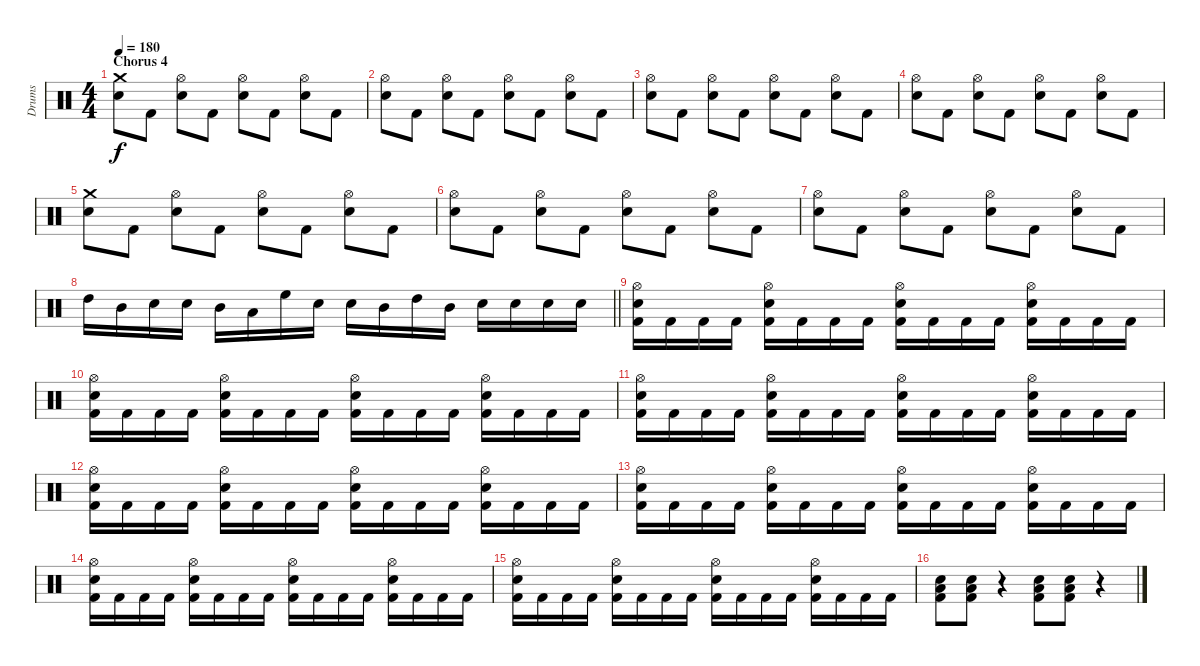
\track ("Drums" "Drums") {instrument percussion}
\staff {score}
\articulation defaults
\ts (4 4)
\section ("" "Chorus 4")
\tempo 180
\clef neutral
\ks c
("Crash medium (hit)" "Electric Snare (hit)").8{dy f} "Kick (hit) 2".8 ("Hi-Hat (open)" "Electric Snare (hit)").8 "Kick (hit) 2".8 ("Hi-Hat (open)" "Electric Snare (hit)").8 "Kick (hit) 2".8 ("Hi-Hat (open)" "Electric Snare (hit)").8 "Kick (hit) 2".8 |
("Hi-Hat (open)" "Electric Snare (hit)").8 "Kick (hit) 2".8 ("Hi-Hat (open)" "Electric Snare (hit)").8 "Kick (hit) 2".8 ("Hi-Hat (open)" "Electric Snare (hit)").8 "Kick (hit) 2".8 ("Hi-Hat (open)" "Electric Snare (hit)").8 "Kick (hit) 2".8 |
("Hi-Hat (open)" "Electric Snare (hit)").8 "Kick (hit) 2".8 ("Hi-Hat (open)" "Electric Snare (hit)").8 "Kick (hit) 2".8 ("Hi-Hat (open)" "Electric Snare (hit)").8 "Kick (hit) 2".8 ("Hi-Hat (open)" "Electric Snare (hit)").8 "Kick (hit) 2".8 |
("Hi-Hat (open)" "Electric Snare (hit)").8 "Kick (hit) 2".8 ("Hi-Hat (open)" "Electric Snare (hit)").8 "Kick (hit) 2".8 ("Hi-Hat (open)" "Electric Snare (hit)").8 "Kick (hit) 2".8 ("Hi-Hat (open)" "Electric Snare (hit)").8 "Kick (hit) 2".8 |
("Crash medium (hit)" "Electric Snare (hit)").8 "Kick (hit) 2".8 ("Hi-Hat (open)" "Electric Snare (hit)").8 "Kick (hit) 2".8 ("Hi-Hat (open)" "Electric Snare (hit)").8 "Kick (hit) 2".8 ("Hi-Hat (open)" "Electric Snare (hit)").8 "Kick (hit) 2".8 |
("Hi-Hat (open)" "Electric Snare (hit)").8 "Kick (hit) 2".8 ("Hi-Hat (open)" "Electric Snare (hit)").8 "Kick (hit) 2".8 ("Hi-Hat (open)" "Electric Snare (hit)").8 "Kick (hit) 2".8 ("Hi-Hat (open)" "Electric Snare (hit)").8 "Kick (hit) 2".8 |
("Hi-Hat (open)" "Electric Snare (hit)").8 "Kick (hit) 2".8 ("Hi-Hat (open)" "Electric Snare (hit)").8 "Kick (hit) 2".8 ("Hi-Hat (open)" "Electric Snare (hit)").8 "Kick (hit) 2".8 ("Hi-Hat (open)" "Electric Snare (hit)").8 "Kick (hit) 2".8 |
\barLineRight lightlight "High Tom (hit)".16 "Mid Tom (hit)".16 "Electric Snare (hit)".16 "Electric Snare (hit)".16 "Mid Tom (hit)".16 "Low Tom (hit)".16 "High Floor Tom (hit)".16 "Electric Snare (hit)".16 "Electric Snare (hit)".16 "Mid Tom (hit)".16 "High Tom (hit)".16 "Mid Tom (hit)".16 "Electric Snare (hit)".16 "Electric Snare (hit)".16 "Electric Snare (hit)".16 "Electric Snare (hit)".16
|
("Hi-Hat (open)" "Electric Snare (hit)" "Kick (hit) 2").16 "Kick (hit) 2".16 "Kick (hit) 2".16 "Kick (hit) 2".16 ("Hi-Hat (open)" "Electric Snare (hit)" "Kick (hit) 2").16 "Kick (hit) 2".16 "Kick (hit) 2".16 "Kick (hit) 2".16 ("Hi-Hat (open)" "Electric Snare (hit)" "Kick (hit) 2").16 "Kick (hit) 2".16 "Kick (hit) 2".16 "Kick (hit) 2".16 ("Hi-Hat (open)" "Electric Snare (hit)" "Kick (hit) 2").16 "Kick (hit) 2".16 "Kick (hit) 2".16 "Kick (hit) 2".16 |
("Hi-Hat (open)" "Electric Snare (hit)" "Kick (hit) 2").16 "Kick (hit) 2".16 "Kick (hit) 2".16 "Kick (hit) 2".16 ("Hi-Hat (open)" "Electric Snare (hit)" "Kick (hit) 2").16 "Kick (hit) 2".16 "Kick (hit) 2".16 "Kick (hit) 2".16 ("Hi-Hat (open)" "Electric Snare (hit)" "Kick (hit) 2").16 "Kick (hit) 2".16 "Kick (hit) 2".16 "Kick (hit) 2".16 ("Hi-Hat (open)" "Electric Snare (hit)" "Kick (hit) 2").16 "Kick (hit) 2".16 "Kick (hit) 2".16 "Kick (hit) 2".16 |
("Hi-Hat (open)" "Electric Snare (hit)" "Kick (hit) 2").16 "Kick (hit) 2".16 "Kick (hit) 2".16 "Kick (hit) 2".16 ("Hi-Hat (open)" "Electric Snare (hit)" "Kick (hit) 2").16 "Kick (hit) 2".16 "Kick (hit) 2".16 "Kick (hit) 2".16 ("Hi-Hat (open)" "Electric Snare (hit)" "Kick (hit) 2").16 "Kick (hit) 2".16 "Kick (hit) 2".16 "Kick (hit) 2".16 ("Hi-Hat (open)" "Electric Snare (hit)" "Kick (hit) 2").16 "Kick (hit) 2".16 "Kick (hit) 2".16 "Kick (hit) 2".16 |
("Hi-Hat (open)" "Electric Snare (hit)" "Kick (hit) 2").16 "Kick (hit) 2".16 "Kick (hit) 2".16 "Kick (hit) 2".16 ("Hi-Hat (open)" "Electric Snare (hit)" "Kick (hit) 2").16 "Kick (hit) 2".16 "Kick (hit) 2".16 "Kick (hit) 2".16 ("Hi-Hat (open)" "Electric Snare (hit)" "Kick (hit) 2").16 "Kick (hit) 2".16 "Kick (hit) 2".16 "Kick (hit) 2".16 ("Hi-Hat (open)" "Electric Snare (hit)" "Kick (hit) 2").16 "Kick (hit) 2".16 "Kick (hit) 2".16 "Kick (hit) 2".16 |
("Hi-Hat (open)" "Electric Snare (hit)" "Kick (hit) 2").16 "Kick (hit) 2".16 "Kick (hit) 2".16 "Kick (hit) 2".16 ("Hi-Hat (open)" "Electric Snare (hit)" "Kick (hit) 2").16 "Kick (hit) 2".16 "Kick (hit) 2".16 "Kick (hit) 2".16 ("Hi-Hat (open)" "Electric Snare (hit)" "Kick (hit) 2").16 "Kick (hit) 2".16 "Kick (hit) 2".16 "Kick (hit) 2".16 ("Hi-Hat (open)" "Electric Snare (hit)" "Kick (hit) 2").16 "Kick (hit) 2".16 "Kick (hit) 2".16 "Kick (hit) 2".16 |
("Hi-Hat (open)" "Electric Snare (hit)" "Kick (hit) 2").16 "Kick (hit) 2".16 "Kick (hit) 2".16 "Kick (hit) 2".16 ("Hi-Hat (open)" "Electric Snare (hit)" "Kick (hit) 2").16 "Kick (hit) 2".16 "Kick (hit) 2".16 "Kick (hit) 2".16 ("Hi-Hat (open)" "Electric Snare (hit)" "Kick (hit) 2").16 "Kick (hit) 2".16 "Kick (hit) 2".16 "Kick (hit) 2".16 ("Hi-Hat (open)" "Electric Snare (hit)" "Kick (hit) 2").16 "Kick (hit) 2".16 "Kick (hit) 2".16 "Kick (hit) 2".16 |
("Hi-Hat (open)" "Electric Snare (hit)" "Kick (hit) 2").16 "Kick (hit) 2".16 "Kick (hit) 2".16 "Kick (hit) 2".16 ("Hi-Hat (open)" "Electric Snare (hit)" "Kick (hit) 2").16 "Kick (hit) 2".16 "Kick (hit) 2".16 "Kick (hit) 2".16 ("Hi-Hat (open)" "Electric Snare (hit)" "Kick (hit) 2").16 "Kick (hit) 2".16 "Kick (hit) 2".16 "Kick (hit) 2".16 ("Hi-Hat (open)" "Electric Snare (hit)" "Kick (hit) 2").16 "Kick (hit) 2".16 "Kick (hit) 2".16 "Kick (hit) 2".16 |
("Low Floor Tom (hit)" "Electric Snare (hit)" "Kick (hit) 2").8 ("Low Floor Tom (hit)" "Electric Snare (hit)" "Kick (hit) 2").8 r.4 ("Low Floor Tom (hit)" "Electric Snare (hit)" "Kick (hit) 2").8 ("Low Floor Tom (hit)" "Electric Snare (hit)" "Kick (hit) 2").8 r.4
